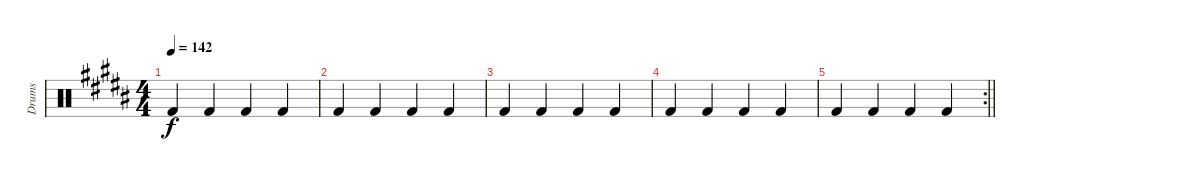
\track ("Drums" "Drums") {instrument percussion}
\staff {score}
\articulation defaults
\ts (4 4)
\tempo 142
\clef neutral
\ks b "Kick (hit) 2".4{dy f} "Kick (hit) 2".4 "Kick (hit) 2".4 "Kick (hit) 2".4
|
"Kick (hit) 2".4 "Kick (hit) 2".4 "Kick (hit) 2".4 "Kick (hit) 2".4 |
"Kick (hit) 2".4 "Kick (hit) 2".4 "Kick (hit) 2".4 "Kick (hit) 2".4 |
"Kick (hit) 2".4 "Kick (hit) 2".4 "Kick (hit) 2".4 "Kick (hit) 2".4 |
\rc 2
\barLineRight lightlight "Kick (hit) 2".4 "Kick (hit) 2".4 "Kick (hit) 2".4 "Kick (hit) 2".4
